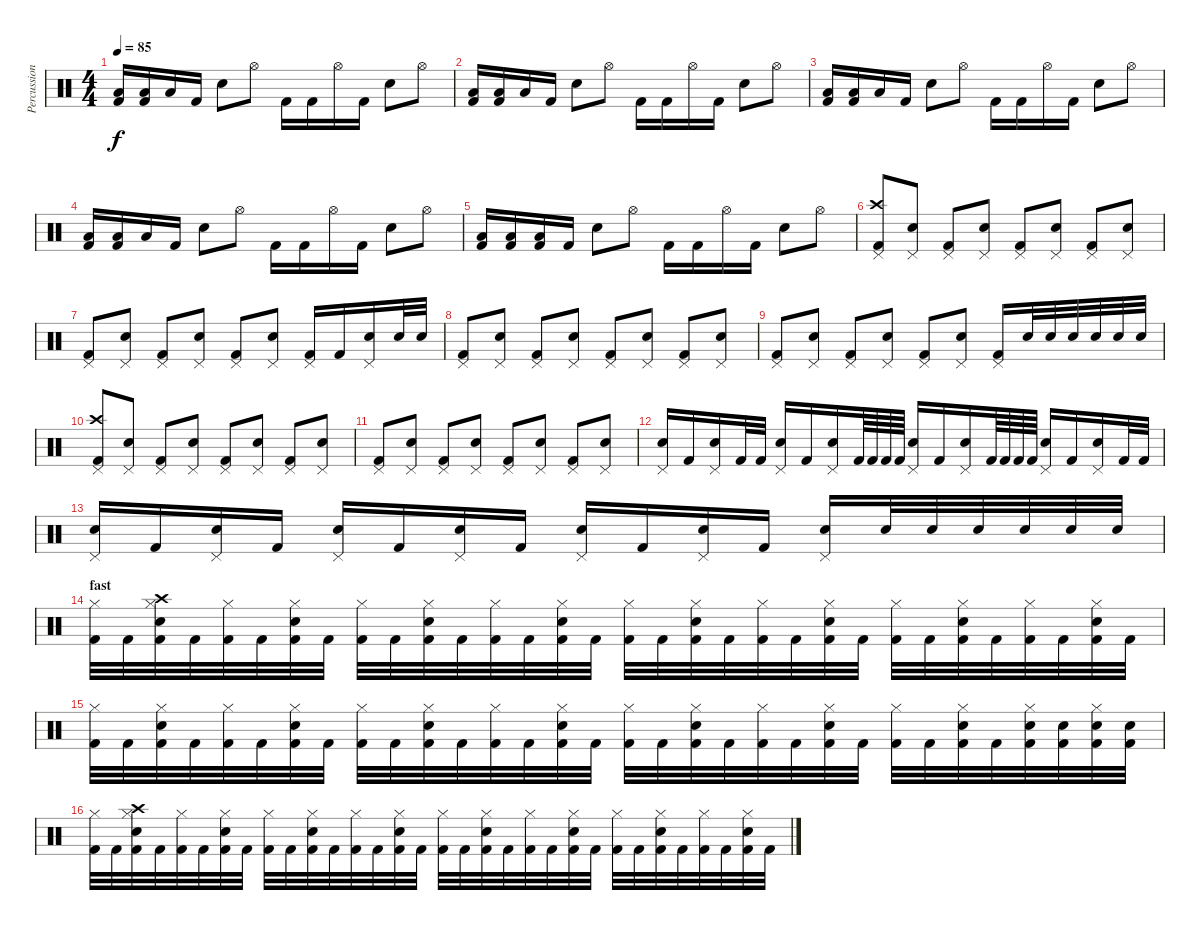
\track ("Percussion" "Percussion") {instrument percussion}
\staff {score}
\articulation defaults
\ts (4 4)
\tempo 85
\clef neutral
\ks c
("Low Floor Tom (hit)" "Kick (hit) 2").16{dy f} ("Low Floor Tom (hit)" "Kick (hit) 2").16 "Low Floor Tom (hit)".16 "Kick (hit) 2".16 "Snare (hit) 2".8 "Hi-Hat (open)".8 "Kick (hit) 2".16 "Kick (hit) 2".16 "Hi-Hat (open)".16 "Kick (hit) 2".16 "Snare (hit) 2".8 "Hi-Hat (open)".8 |
("Low Floor Tom (hit)" "Kick (hit) 2").16 ("Low Floor Tom (hit)" "Kick (hit) 2").16 "Low Floor Tom (hit)".16 "Kick (hit) 2".16 "Snare (hit) 2".8 "Hi-Hat (open)".8 "Kick (hit) 2".16 "Kick (hit) 2".16 "Hi-Hat (open)".16 "Kick (hit) 2".16 "Snare (hit) 2".8 "Hi-Hat (open)".8 |
("Low Floor Tom (hit)" "Kick (hit) 2").16 ("Low Floor Tom (hit)" "Kick (hit) 2").16 "Low Floor Tom (hit)".16 "Kick (hit) 2".16 "Snare (hit) 2".8 "Hi-Hat (open)".8 "Kick (hit) 2".16 "Kick (hit) 2".16 "Hi-Hat (open)".16 "Kick (hit) 2".16 "Snare (hit) 2".8 "Hi-Hat (open)".8 |
("Low Floor Tom (hit)" "Kick (hit) 2").16 ("Low Floor Tom (hit)" "Kick (hit) 2").16 "Low Floor Tom (hit)".16 "Kick (hit) 2".16 "Snare (hit) 2".8 "Hi-Hat (open)".8 "Kick (hit) 2".16 "Kick (hit) 2".16 "Hi-Hat (open)".16 "Kick (hit) 2".16 "Snare (hit) 2".8 "Hi-Hat (open)".8 |
("Low Floor Tom (hit)" "Kick (hit) 2").16 ("Low Floor Tom (hit)" "Kick (hit) 2").16 ("Kick (hit) 2" "Low Floor Tom (hit)").16 "Kick (hit) 2".16 "Snare (hit) 2".8 "Hi-Hat (open)".8 "Kick (hit) 2".16 "Kick (hit) 2".16 "Hi-Hat (open)".16 "Kick (hit) 2".16 "Snare (hit) 2".8 "Hi-Hat (open)".8 |
("Crash high (hit)" "Pedal Hi-Hat (hit)" "Kick (hit) 2").8 ("Pedal Hi-Hat (hit)" "Snare (hit) 2").8 ("Pedal Hi-Hat (hit)" "Kick (hit) 2").8 ("Pedal Hi-Hat (hit)" "Snare (hit) 2").8 ("Pedal Hi-Hat (hit)" "Kick (hit) 2").8 ("Pedal Hi-Hat (hit)" "Snare (hit) 2").8 ("Pedal Hi-Hat (hit)" "Kick (hit) 2").8 ("Pedal Hi-Hat (hit)" "Snare (hit) 2").8 |
("Pedal Hi-Hat (hit)" "Kick (hit) 2").8 ("Pedal Hi-Hat (hit)" "Snare (hit) 2").8 ("Pedal Hi-Hat (hit)" "Kick (hit) 2").8 ("Pedal Hi-Hat (hit)" "Snare (hit) 2").8 ("Pedal Hi-Hat (hit)" "Kick (hit) 2").8 ("Pedal Hi-Hat (hit)" "Snare (hit) 2").8 ("Pedal Hi-Hat (hit)" "Kick (hit) 2").16 "Kick (hit) 2".16 ("Pedal Hi-Hat (hit)" "Snare (hit) 2").16 "Snare (hit) 2".32 "Snare (hit) 2".32 |
("Pedal Hi-Hat (hit)" "Kick (hit) 2").8 ("Pedal Hi-Hat (hit)" "Snare (hit) 2").8 ("Pedal Hi-Hat (hit)" "Kick (hit) 2").8 ("Pedal Hi-Hat (hit)" "Snare (hit) 2").8 ("Pedal Hi-Hat (hit)" "Kick (hit) 2").8 ("Pedal Hi-Hat (hit)" "Snare (hit) 2").8 ("Pedal Hi-Hat (hit)" "Kick (hit) 2").8 ("Pedal Hi-Hat (hit)" "Snare (hit) 2").8 |
("Pedal Hi-Hat (hit)" "Kick (hit) 2").8 ("Pedal Hi-Hat (hit)" "Snare (hit) 2").8 ("Pedal Hi-Hat (hit)" "Kick (hit) 2").8 ("Pedal Hi-Hat (hit)" "Snare (hit) 2").8 ("Pedal Hi-Hat (hit)" "Kick (hit) 2").8 ("Pedal Hi-Hat (hit)" "Snare (hit) 2").8 ("Pedal Hi-Hat (hit)" "Kick (hit) 2").16 "Snare (hit) 2".32 "Snare (hit) 2".32 "Snare (hit) 2".32 "Snare (hit) 2".32 "Snare (hit) 2".32 "Snare (hit) 2".32 |
("Crash high (hit)" "Pedal Hi-Hat (hit)" "Kick (hit) 2").8 ("Pedal Hi-Hat (hit)" "Snare (hit) 2").8 ("Pedal Hi-Hat (hit)" "Kick (hit) 2").8 ("Pedal Hi-Hat (hit)" "Snare (hit) 2").8 ("Pedal Hi-Hat (hit)" "Kick (hit) 2").8 ("Pedal Hi-Hat (hit)" "Snare (hit) 2").8 ("Pedal Hi-Hat (hit)" "Kick (hit) 2").8 ("Pedal Hi-Hat (hit)" "Snare (hit) 2").8 |
("Pedal Hi-Hat (hit)" "Kick (hit) 2").8 ("Pedal Hi-Hat (hit)" "Snare (hit) 2").8 ("Pedal Hi-Hat (hit)" "Kick (hit) 2").8 ("Pedal Hi-Hat (hit)" "Snare (hit) 2").8 ("Pedal Hi-Hat (hit)" "Kick (hit) 2").8 ("Pedal Hi-Hat (hit)" "Snare (hit) 2").8 ("Pedal Hi-Hat (hit)" "Kick (hit) 2").8 ("Pedal Hi-Hat (hit)" "Snare (hit) 2").8 |
("Pedal Hi-Hat (hit)" "Snare (hit) 2").16 "Kick (hit) 2".16 ("Pedal Hi-Hat (hit)" "Snare (hit) 2").16 "Kick (hit) 2".32 "Kick (hit) 2".32 ("Pedal Hi-Hat (hit)" "Snare (hit) 2").16 "Kick (hit) 2".16 ("Pedal Hi-Hat (hit)" "Snare (hit) 2").16 "Kick (hit) 2".64 "Kick (hit) 2".64 "Kick (hit) 2".64 "Kick (hit) 2".64 ("Pedal Hi-Hat (hit)" "Snare (hit) 2").16 "Kick (hit) 2".16 ("Pedal Hi-Hat (hit)" "Snare (hit) 2").16 "Kick (hit) 2".64 "Kick (hit) 2".64 "Kick (hit) 2".64 "Kick (hit) 2".64 ("Pedal Hi-Hat (hit)" "Snare (hit) 2").16 "Kick (hit) 2".16 ("Pedal Hi-Hat (hit)" "Snare (hit) 2").16 "Kick (hit) 2".32 "Kick (hit) 2".32 |
("Pedal Hi-Hat (hit)" "Snare (hit) 2").16 "Kick (hit) 2".16 ("Pedal Hi-Hat (hit)" "Snare (hit) 2").16 "Kick (hit) 2".16 ("Pedal Hi-Hat (hit)" "Snare (hit) 2").16 "Kick (hit) 2".16 ("Pedal Hi-Hat (hit)" "Snare (hit) 2").16 "Kick (hit) 2".16 ("Pedal Hi-Hat (hit)" "Snare (hit) 2").16 "Kick (hit) 2".16 ("Pedal Hi-Hat (hit)" "Snare (hit) 2").16 "Kick (hit) 2".16 ("Pedal Hi-Hat (hit)" "Snare (hit) 2").16 "Snare (hit) 2".32 "Snare (hit) 2".32 "Snare (hit) 2".32 "Snare (hit) 2".32 "Snare (hit) 2".32 "Snare (hit) 2".32 |
\section ("" "fast")
("Hi-Hat (closed)" "Kick (hit) 2").32 "Kick (hit) 2".32 ("Hi-Hat (closed)" "Snare (hit) 2" "Kick (hit) 2" "Crash high (hit)").32 "Kick (hit) 2".32 ("Hi-Hat (closed)" "Kick (hit) 2").32 "Kick (hit) 2".32 ("Hi-Hat (closed)" "Snare (hit) 2" "Kick (hit) 2").32 "Kick (hit) 2".32 ("Hi-Hat (closed)" "Kick (hit) 2").32 "Kick (hit) 2".32 ("Hi-Hat (closed)" "Snare (hit) 2" "Kick (hit) 2").32 "Kick (hit) 2".32 ("Hi-Hat (closed)" "Kick (hit) 2").32 "Kick (hit) 2".32 ("Hi-Hat (closed)" "Snare (hit) 2" "Kick (hit) 2").32 "Kick (hit) 2".32 ("Hi-Hat (closed)" "Kick (hit) 2").32 "Kick (hit) 2".32 ("Hi-Hat (closed)" "Snare (hit) 2" "Kick (hit) 2").32 "Kick (hit) 2".32 ("Hi-Hat (closed)" "Kick (hit) 2").32 "Kick (hit) 2".32 ("Hi-Hat (closed)" "Snare (hit) 2" "Kick (hit) 2").32 "Kick (hit) 2".32 ("Hi-Hat (closed)" "Kick (hit) 2").32 "Kick (hit) 2".32 ("Hi-Hat (closed)" "Snare (hit) 2" "Kick (hit) 2").32 "Kick (hit) 2".32 ("Hi-Hat (closed)" "Kick (hit) 2").32 "Kick (hit) 2".32 ("Hi-Hat (closed)" "Snare (hit) 2" "Kick (hit) 2").32 "Kick (hit) 2".32 |
("Hi-Hat (closed)" "Kick (hit) 2").32 "Kick (hit) 2".32 ("Hi-Hat (closed)" "Snare (hit) 2" "Kick (hit) 2").32 "Kick (hit) 2".32 ("Hi-Hat (closed)" "Kick (hit) 2").32 "Kick (hit) 2".32 ("Hi-Hat (closed)" "Snare (hit) 2" "Kick (hit) 2").32 "Kick (hit) 2".32 ("Hi-Hat (closed)" "Kick (hit) 2").32 "Kick (hit) 2".32 ("Hi-Hat (closed)" "Snare (hit) 2" "Kick (hit) 2").32 "Kick (hit) 2".32 ("Hi-Hat (closed)" "Kick (hit) 2").32 "Kick (hit) 2".32 ("Hi-Hat (closed)" "Snare (hit) 2" "Kick (hit) 2").32 "Kick (hit) 2".32 ("Hi-Hat (closed)" "Kick (hit) 2").32 "Kick (hit) 2".32 ("Hi-Hat (closed)" "Snare (hit) 2" "Kick (hit) 2").32 "Kick (hit) 2".32 ("Hi-Hat (closed)" "Kick (hit) 2").32 "Kick (hit) 2".32 ("Hi-Hat (closed)" "Snare (hit) 2" "Kick (hit) 2").32 "Kick (hit) 2".32 ("Hi-Hat (closed)" "Kick (hit) 2").32 "Kick (hit) 2".32 ("Hi-Hat (closed)" "Snare (hit) 2" "Kick (hit) 2").32 "Kick (hit) 2".32 ("Hi-Hat (closed)" "Snare (hit) 2" "Kick (hit) 2").32 ("Snare (hit) 2" "Kick (hit) 2").32 ("Hi-Hat (closed)" "Snare (hit) 2" "Kick (hit) 2").32 ("Snare (hit) 2" "Kick (hit) 2").32 |
("Hi-Hat (closed)" "Kick (hit) 2").32 "Kick (hit) 2".32 ("Hi-Hat (closed)" "Snare (hit) 2" "Kick (hit) 2" "Crash high (hit)").32 "Kick (hit) 2".32 ("Hi-Hat (closed)" "Kick (hit) 2").32 "Kick (hit) 2".32 ("Hi-Hat (closed)" "Snare (hit) 2" "Kick (hit) 2").32 "Kick (hit) 2".32 ("Hi-Hat (closed)" "Kick (hit) 2").32 "Kick (hit) 2".32 ("Hi-Hat (closed)" "Snare (hit) 2" "Kick (hit) 2").32 "Kick (hit) 2".32 ("Hi-Hat (closed)" "Kick (hit) 2").32 "Kick (hit) 2".32 ("Hi-Hat (closed)" "Snare (hit) 2" "Kick (hit) 2").32 "Kick (hit) 2".32 ("Hi-Hat (closed)" "Kick (hit) 2").32 "Kick (hit) 2".32 ("Hi-Hat (closed)" "Snare (hit) 2" "Kick (hit) 2").32 "Kick (hit) 2".32 ("Hi-Hat (closed)" "Kick (hit) 2").32 "Kick (hit) 2".32 ("Hi-Hat (closed)" "Snare (hit) 2" "Kick (hit) 2").32 "Kick (hit) 2".32 ("Hi-Hat (closed)" "Kick (hit) 2").32 "Kick (hit) 2".32 ("Hi-Hat (closed)" "Snare (hit) 2" "Kick (hit) 2").32 "Kick (hit) 2".32 ("Hi-Hat (closed)" "Kick (hit) 2").32 "Kick (hit) 2".32 ("Hi-Hat (closed)" "Snare (hit) 2" "Kick (hit) 2").32 "Kick (hit) 2".32
